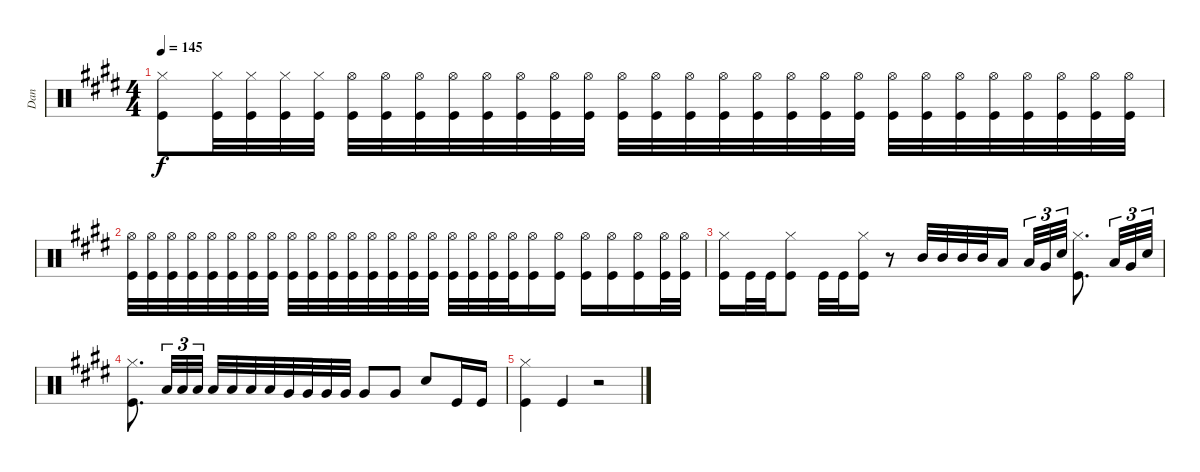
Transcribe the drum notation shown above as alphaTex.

\track ("Dan" "Dan") {instrument percussion}
\staff {score}
\articulation defaults
\ts (4 4)
\tempo 145
\clef neutral
\ks e
("Hi-Hat (closed)" "Kick (hit)").8{dy f} ("Hi-Hat (closed)" "Kick (hit)").32 ("Hi-Hat (closed)" "Kick (hit)").32 ("Hi-Hat (closed)" "Kick (hit)").32 ("Hi-Hat (closed)" "Kick (hit)").32 ("Hi-Hat (open)" "Kick (hit)").32 ("Hi-Hat (open)" "Kick (hit)").32 ("Hi-Hat (open)" "Kick (hit)").32 ("Hi-Hat (open)" "Kick (hit)").32 ("Hi-Hat (open)" "Kick (hit)").32 ("Hi-Hat (open)" "Kick (hit)").32 ("Hi-Hat (open)" "Kick (hit)").32 ("Hi-Hat (open)" "Kick (hit)").32 ("Hi-Hat (open)" "Kick (hit)").32 ("Hi-Hat (open)" "Kick (hit)").32 ("Hi-Hat (open)" "Kick (hit)").32 ("Hi-Hat (open)" "Kick (hit)").32 ("Hi-Hat (open)" "Kick (hit)").32 ("Hi-Hat (open)" "Kick (hit)").32 ("Hi-Hat (open)" "Kick (hit)").32 ("Hi-Hat (open)" "Kick (hit)").32 ("Hi-Hat (open)" "Kick (hit)").32 ("Hi-Hat (open)" "Kick (hit)").32 ("Hi-Hat (open)" "Kick (hit)").32 ("Hi-Hat (open)" "Kick (hit)").32 ("Hi-Hat (open)" "Kick (hit)").32 ("Hi-Hat (open)" "Kick (hit)").32 ("Hi-Hat (open)" "Kick (hit)").32 ("Hi-Hat (open)" "Kick (hit)").32 |
("Hi-Hat (open)" "Kick (hit)").32 ("Hi-Hat (open)" "Kick (hit)").32 ("Hi-Hat (open)" "Kick (hit)").32 ("Hi-Hat (open)" "Kick (hit)").32 ("Hi-Hat (open)" "Kick (hit)").32 ("Hi-Hat (open)" "Kick (hit)").32 ("Hi-Hat (open)" "Kick (hit)").32 ("Hi-Hat (open)" "Kick (hit)").32 ("Hi-Hat (open)" "Kick (hit)").32 ("Hi-Hat (open)" "Kick (hit)").32 ("Hi-Hat (open)" "Kick (hit)").32 ("Hi-Hat (open)" "Kick (hit)").32 ("Hi-Hat (open)" "Kick (hit)").32 ("Hi-Hat (open)" "Kick (hit)").32 ("Hi-Hat (open)" "Kick (hit)").32 ("Hi-Hat (open)" "Kick (hit)").32 ("Hi-Hat (open)" "Kick (hit)").32 ("Hi-Hat (open)" "Kick (hit)").32 ("Hi-Hat (open)" "Kick (hit)").32 ("Hi-Hat (open)" "Kick (hit)").32 ("Hi-Hat (open)" "Kick (hit)").16 ("Hi-Hat (open)" "Kick (hit)").16 ("Hi-Hat (open)" "Kick (hit)").16 ("Hi-Hat (open)" "Kick (hit)").16 ("Hi-Hat (open)" "Kick (hit)").16 ("Hi-Hat (open)" "Kick (hit)").32 ("Hi-Hat (open)" "Kick (hit)").32 |
("Hi-Hat (closed)" "Kick (hit)").16 "Kick (hit)".32 "Kick (hit)".32 ("Hi-Hat (closed)" "Kick (hit)").8 "Kick (hit)".32 "Kick (hit)".32 ("Hi-Hat (closed)" "Kick (hit)").16 r.8 "Mid Tom (hit)".32 "Mid Tom (hit)".32 "Mid Tom (hit)".32 "Mid Tom (hit)".32 "Low Tom (hit)".16{beam splitsecondary} "Low Tom (hit)".32{tu (3 2)} "Very Low Tom (hit)".32{tu (3 2)} "Snare (hit) 2".32{tu (3 2)} ("Hi-Hat (closed)" "Kick (hit)").8{d} "Low Tom (hit)".32{tu (3 2)} "Very Low Tom (hit)".32{tu (3 2)} "Snare (hit) 2".32{tu (3 2)} |
("Hi-Hat (closed)" "Kick (hit)").8{d} "Low Tom (hit)".32{tu (3 2)} "Low Tom (hit)".32{tu (3 2)} "Low Tom (hit)".32{tu (3 2)} "Low Tom (hit)".32 "Low Tom (hit)".32 "Low Tom (hit)".32 "Low Tom (hit)".32 "Very Low Tom (hit)".32 "Very Low Tom (hit)".32 "Very Low Tom (hit)".32 "Very Low Tom (hit)".32 "Very Low Tom (hit)".8 "Very Low Tom (hit)".8 "Snare (hit) 2".8 "Kick (hit)".16 "Kick (hit)".16 |
("Hi-Hat (closed)" "Kick (hit)").4 "Kick (hit)".4 r.2
